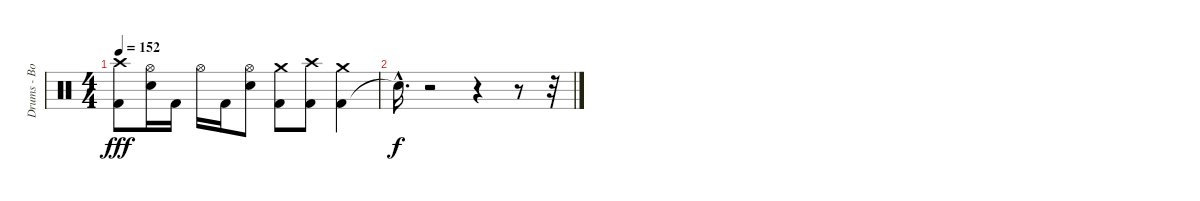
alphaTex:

\track ("Drums - Bobby Schayer" "Drums - Bo") {instrument percussion}
\staff {score}
\articulation defaults
\ts (4 4)
\tempo 152
\clef neutral
\ks c
("Kick (hit) 2" "Crash high (hit)").8{dy fff} ("Electric Snare (hit)" "Hi-Hat (open)").16 "Kick (hit) 2".16 "Hi-Hat (open)".16 "Kick (hit) 2".16 ("Electric Snare (hit)" "Hi-Hat (open)").8 ("Kick (hit) 2" "Crash medium (hit)").8 ("Kick (hit) 2" "Crash high (hit)").8 ("Kick (hit) 2" "Crash medium (hit)").4 |
"Snare (hit)"{hac t}.16{d dy f} r.2 r.4 r.8 r.32
